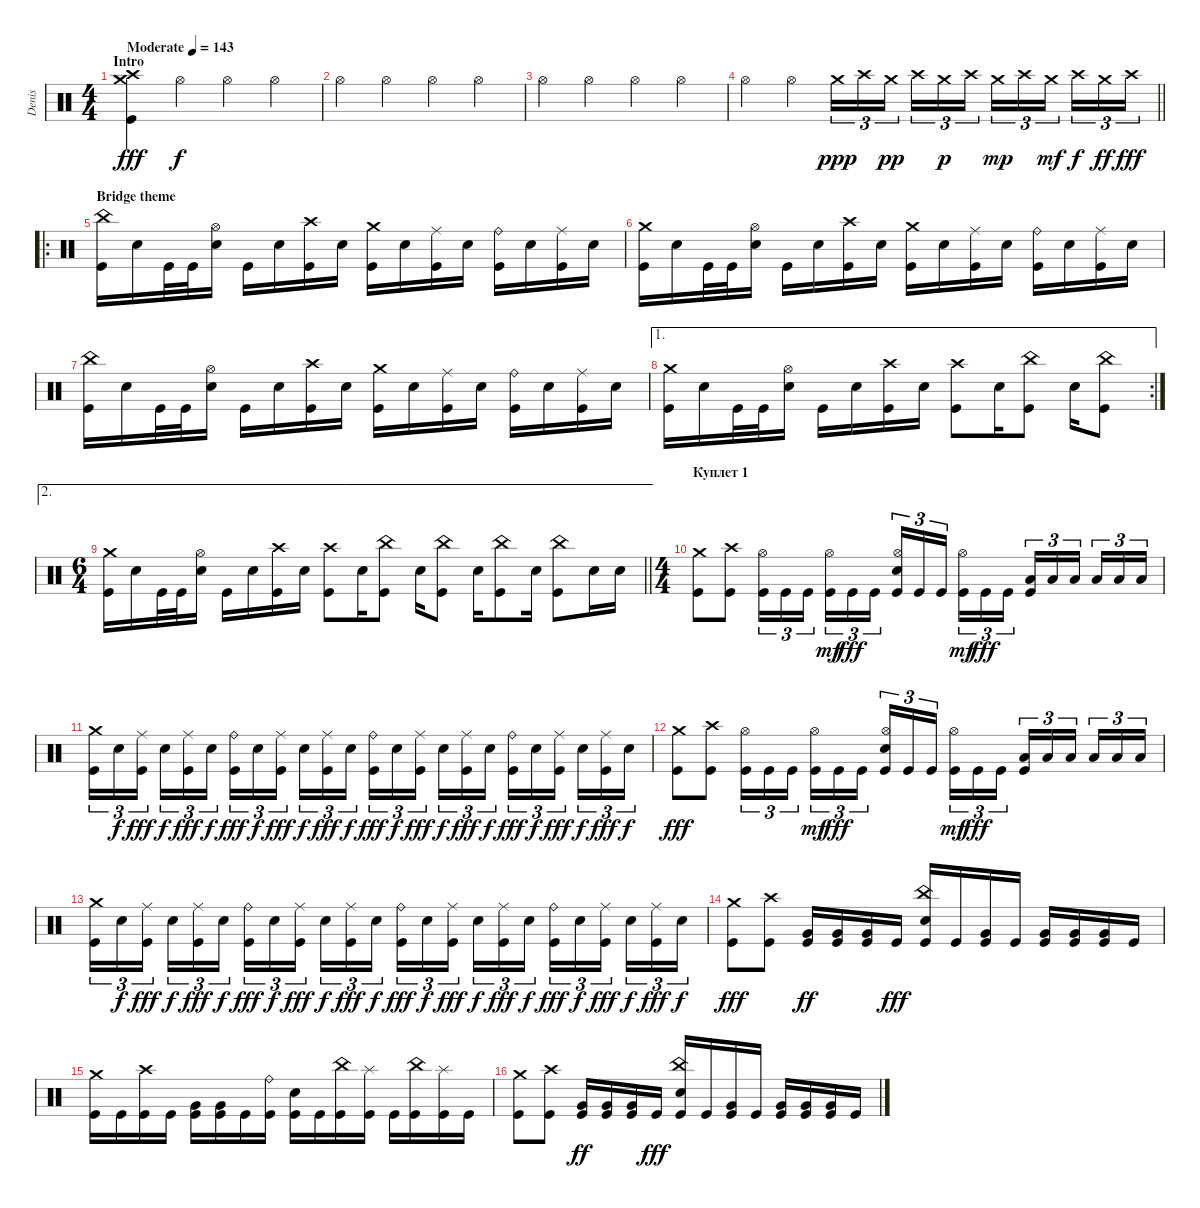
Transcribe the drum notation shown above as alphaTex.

\track ("Denis" "Denis") {instrument percussion}
\staff {score}
\articulation defaults
\ts (4 4)
\section ("" "Intro")
\tempo (143 "Moderate")
\clef neutral
\ks c
("Crash high (hit)" "Crash medium (hit)" "Kick (hit)").4{dy fff} "Hi-Hat (open)".4{dy f} "Hi-Hat (open)".4 "Hi-Hat (open)".4 |
"Hi-Hat (open)".4 "Hi-Hat (open)".4 "Hi-Hat (open)".4 "Hi-Hat (open)".4 |
"Hi-Hat (open)".4 "Hi-Hat (open)".4 "Hi-Hat (open)".4 "Hi-Hat (open)".4 |
\barLineRight lightlight "Hi-Hat (open)".4 "Hi-Hat (open)".4 "Crash medium (hit)".16{tu (3 2) dy ppp} "Crash high (hit)".16{tu (3 2)} "Crash medium (hit)".16{tu (3 2) dy pp beam splitsecondary} "Crash high (hit)".16{tu (3 2)} "Crash medium (hit)".16{tu (3 2) dy p} "Crash high (hit)".16{tu (3 2)} "Crash medium (hit)".16{tu (3 2) dy mp} "Crash high (hit)".16{tu (3 2)} "Crash medium (hit)".16{tu (3 2) dy mf beam splitsecondary} "Crash high (hit)".16{tu (3 2) dy f} "Crash medium (hit)".16{tu (3 2) dy ff} "Crash high (hit)".16{tu (3 2) dy fff}
|
\ro
\section ("" "Bridge theme")
("Kick (hit)" "China (hit)").16 "Electric Snare (hit)".16 "Kick (hit)".32 "Kick (hit)".32 ("Electric Snare (hit)" "Hi-Hat (open)").16 "Kick (hit)".16 "Electric Snare (hit)".16 ("Kick (hit)" "Crash high (hit)").16 "Electric Snare (hit)".16 ("Kick (hit)" "Crash medium (hit)").16 "Electric Snare (hit)".16 ("Kick (hit)" "Ride (middle)").16 "Electric Snare (hit)".16 ("Kick (hit)" "Ride (bell)").16 "Electric Snare (hit)".16 ("Kick (hit)" "Ride (middle)").16 "Electric Snare (hit)".16 |
("Kick (hit)" "Crash medium (hit)").16 "Electric Snare (hit)".16 "Kick (hit)".32 "Kick (hit)".32 ("Electric Snare (hit)" "Hi-Hat (open)").16 "Kick (hit)".16 "Electric Snare (hit)".16 ("Kick (hit)" "Crash high (hit)").16 "Electric Snare (hit)".16 ("Kick (hit)" "Crash medium (hit)").16 "Electric Snare (hit)".16 ("Kick (hit)" "Ride (middle)").16 "Electric Snare (hit)".16 ("Kick (hit)" "Ride (bell)").16 "Electric Snare (hit)".16 ("Kick (hit)" "Ride (middle)").16 "Electric Snare (hit)".16 |
("Kick (hit)" "China (hit)").16 "Electric Snare (hit)".16 "Kick (hit)".32 "Kick (hit)".32 ("Electric Snare (hit)" "Hi-Hat (open)").16 "Kick (hit)".16 "Electric Snare (hit)".16 ("Kick (hit)" "Crash high (hit)").16 "Electric Snare (hit)".16 ("Kick (hit)" "Crash medium (hit)").16 "Electric Snare (hit)".16 ("Kick (hit)" "Ride (middle)").16 "Electric Snare (hit)".16 ("Kick (hit)" "Ride (bell)").16 "Electric Snare (hit)".16 ("Kick (hit)" "Ride (middle)").16 "Electric Snare (hit)".16 |
\ae 1
\rc 2
("Kick (hit)" "Crash medium (hit)").16 "Electric Snare (hit)".16 "Kick (hit)".32 "Kick (hit)".32 ("Electric Snare (hit)" "Hi-Hat (open)").16 "Kick (hit)".16 "Electric Snare (hit)".16 ("Kick (hit)" "Crash high (hit)").16 "Electric Snare (hit)".16 ("Kick (hit)" "Crash high (hit)").8 "Electric Snare (hit)".16 ("China (hit)" "Kick (hit)").8 "Electric Snare (hit)".16 ("Kick (hit)" "China (hit)").8 |
\ae 2
\ts (6 4)
\barLineRight lightlight
("Kick (hit)" "Crash medium (hit)").16 "Electric Snare (hit)".16 "Kick (hit)".32 "Kick (hit)".32 ("Electric Snare (hit)" "Hi-Hat (open)").16 "Kick (hit)".16 "Electric Snare (hit)".16 ("Kick (hit)" "Crash high (hit)").16 "Electric Snare (hit)".16 ("Kick (hit)" "Crash high (hit)").8 "Electric Snare (hit)".16 ("China (hit)" "Kick (hit)").8 "Electric Snare (hit)".16 ("Kick (hit)" "China (hit)").8 "Electric Snare (hit)".16 ("Kick (hit)" "China (hit)").8 "Electric Snare (hit)".16 ("Kick (hit)" "China (hit)").8 "Electric Snare (hit)".16 "Electric Snare (hit)".16 |
\ts (4 4)
\section ("" "Куплет 1")
("Crash medium (hit)" "Kick (hit)").8 ("Crash high (hit)" "Kick (hit)").8 ("Kick (hit)" "Hi-Hat (open)").16{tu (3 2)} "Kick (hit)".16{tu (3 2)} "Kick (hit)".16{tu (3 2) beam splitsecondary} ("Kick (hit)" "Hi-Hat (open)").16{tu (3 2) dy mf} "Kick (hit)".16{tu (3 2) dy fff} "Kick (hit)".16{tu (3 2)} ("Kick (hit)" "Hi-Hat (open)" "Electric Snare (hit)").16{tu (3 2)} "Kick (hit)".16{tu (3 2)} "Kick (hit)".16{tu (3 2) beam splitsecondary} ("Kick (hit)" "Hi-Hat (open)").16{tu (3 2) dy mf} "Kick (hit)".16{tu (3 2) dy fff} "Kick (hit)".16{tu (3 2)} ("Kick (hit)" "Low Tom (hit)").16{tu (3 2)} "Low Tom (hit)".16{tu (3 2)} "Low Tom (hit)".16{tu (3 2) beam splitsecondary} "Low Tom (hit)".16{tu (3 2)} "Low Tom (hit)".16{tu (3 2)} "Low Tom (hit)".16{tu (3 2)} |
("Crash medium (hit)" "Kick (hit)").16{tu (3 2)} "Electric Snare (hit)".16{tu (3 2) dy f} ("Kick (hit)" "Ride (middle)").16{tu (3 2) dy fff beam splitsecondary} "Electric Snare (hit)".16{tu (3 2) dy f} ("Kick (hit)" "Ride (middle)").16{tu (3 2) dy fff} "Electric Snare (hit)".16{tu (3 2) dy f} ("Kick (hit)" "Ride (bell)").16{tu (3 2) dy fff} "Electric Snare (hit)".16{tu (3 2) dy f} ("Kick (hit)" "Ride (middle)").16{tu (3 2) dy fff beam splitsecondary} "Electric Snare (hit)".16{tu (3 2) dy f} ("Kick (hit)" "Ride (middle)").16{tu (3 2) dy fff} "Electric Snare (hit)".16{tu (3 2) dy f} ("Kick (hit)" "Ride (bell)").16{tu (3 2) dy fff} "Electric Snare (hit)".16{tu (3 2) dy f} ("Kick (hit)" "Ride (middle)").16{tu (3 2) dy fff beam splitsecondary} "Electric Snare (hit)".16{tu (3 2) dy f} ("Kick (hit)" "Ride (middle)").16{tu (3 2) dy fff} "Electric Snare (hit)".16{tu (3 2) dy f} ("Kick (hit)" "Ride (bell)").16{tu (3 2) dy fff} "Electric Snare (hit)".16{tu (3 2) dy f} ("Kick (hit)" "Ride (middle)").16{tu (3 2) dy fff beam splitsecondary} "Electric Snare (hit)".16{tu (3 2) dy f} ("Kick (hit)" "Ride (middle)").16{tu (3 2) dy fff} "Electric Snare (hit)".16{tu (3 2) dy f} |
("Crash medium (hit)" "Kick (hit)").8{dy fff} ("Crash high (hit)" "Kick (hit)").8 ("Kick (hit)" "Hi-Hat (open)").16{tu (3 2)} "Kick (hit)".16{tu (3 2)} "Kick (hit)".16{tu (3 2) beam splitsecondary} ("Kick (hit)" "Hi-Hat (open)").16{tu (3 2) dy mf} "Kick (hit)".16{tu (3 2) dy fff} "Kick (hit)".16{tu (3 2)} ("Kick (hit)" "Hi-Hat (open)" "Electric Snare (hit)").16{tu (3 2)} "Kick (hit)".16{tu (3 2)} "Kick (hit)".16{tu (3 2) beam splitsecondary} ("Kick (hit)" "Hi-Hat (open)").16{tu (3 2) dy mf} "Kick (hit)".16{tu (3 2) dy fff} "Kick (hit)".16{tu (3 2)} ("Kick (hit)" "Low Tom (hit)").16{tu (3 2)} "Low Tom (hit)".16{tu (3 2)} "Low Tom (hit)".16{tu (3 2) beam splitsecondary} "Low Tom (hit)".16{tu (3 2)} "Low Tom (hit)".16{tu (3 2)} "Low Tom (hit)".16{tu (3 2)} |
("Crash medium (hit)" "Kick (hit)").16{tu (3 2)} "Electric Snare (hit)".16{tu (3 2) dy f} ("Kick (hit)" "Ride (middle)").16{tu (3 2) dy fff beam splitsecondary} "Electric Snare (hit)".16{tu (3 2) dy f} ("Kick (hit)" "Ride (middle)").16{tu (3 2) dy fff} "Electric Snare (hit)".16{tu (3 2) dy f} ("Kick (hit)" "Ride (bell)").16{tu (3 2) dy fff} "Electric Snare (hit)".16{tu (3 2) dy f} ("Kick (hit)" "Ride (middle)").16{tu (3 2) dy fff beam splitsecondary} "Electric Snare (hit)".16{tu (3 2) dy f} ("Kick (hit)" "Ride (middle)").16{tu (3 2) dy fff} "Electric Snare (hit)".16{tu (3 2) dy f} ("Kick (hit)" "Ride (bell)").16{tu (3 2) dy fff} "Electric Snare (hit)".16{tu (3 2) dy f} ("Kick (hit)" "Ride (middle)").16{tu (3 2) dy fff beam splitsecondary} "Electric Snare (hit)".16{tu (3 2) dy f} ("Kick (hit)" "Ride (middle)").16{tu (3 2) dy fff} "Electric Snare (hit)".16{tu (3 2) dy f} ("Kick (hit)" "Ride (bell)").16{tu (3 2) dy fff} "Electric Snare (hit)".16{tu (3 2) dy f} ("Kick (hit)" "Ride (middle)").16{tu (3 2) dy fff beam splitsecondary} "Electric Snare (hit)".16{tu (3 2) dy f} ("Kick (hit)" "Ride (middle)").16{tu (3 2) dy fff} "Electric Snare (hit)".16{tu (3 2) dy f} |
("Crash medium (hit)" "Kick (hit)").8{dy fff} ("Crash high (hit)" "Kick (hit)").8 ("Kick (hit)" "Very Low Tom (hit)").16{dy ff} ("Kick (hit)" "Very Low Tom (hit)").16 ("Kick (hit)" "Very Low Tom (hit)").16 "Kick (hit)".16{dy fff} ("Kick (hit)" "Electric Snare (hit)" "China (hit)").16 "Kick (hit)".16 ("Kick (hit)" "Very Low Tom (hit)").16 "Kick (hit)".16 ("Kick (hit)" "Very Low Tom (hit)").16 ("Kick (hit)" "Very Low Tom (hit)").16 ("Kick (hit)" "Very Low Tom (hit)").16 "Kick (hit)".16 |
("Kick (hit)" "Crash medium (hit)").16 "Kick (hit)".16 ("Kick (hit)" "Crash high (hit)").16 "Kick (hit)".16 ("Kick (hit)" "Very Low Tom (hit)").16 ("Kick (hit)" "Very Low Tom (hit)").16 "Kick (hit)".16 ("Kick (hit)" "Ride (bell)").16 ("Kick (hit)" "Electric Snare (hit)").16 "Kick (hit)".16 ("Kick (hit)" "China (hit)").16 ("Kick (hit)" "Splash (hit)").16 "Kick (hit)".16 ("Kick (hit)" "China (hit)").16 ("Kick (hit)" "Splash (hit)").16 "Kick (hit)".16 |
("Crash medium (hit)" "Kick (hit)").8 ("Crash high (hit)" "Kick (hit)").8 ("Kick (hit)" "Very Low Tom (hit)").16{dy ff} ("Kick (hit)" "Very Low Tom (hit)").16 ("Kick (hit)" "Very Low Tom (hit)").16 "Kick (hit)".16{dy fff} ("Kick (hit)" "Electric Snare (hit)" "China (hit)").16 "Kick (hit)".16 ("Kick (hit)" "Very Low Tom (hit)").16 "Kick (hit)".16 ("Kick (hit)" "Very Low Tom (hit)").16 ("Kick (hit)" "Very Low Tom (hit)").16 ("Kick (hit)" "Very Low Tom (hit)").16 "Kick (hit)".16
